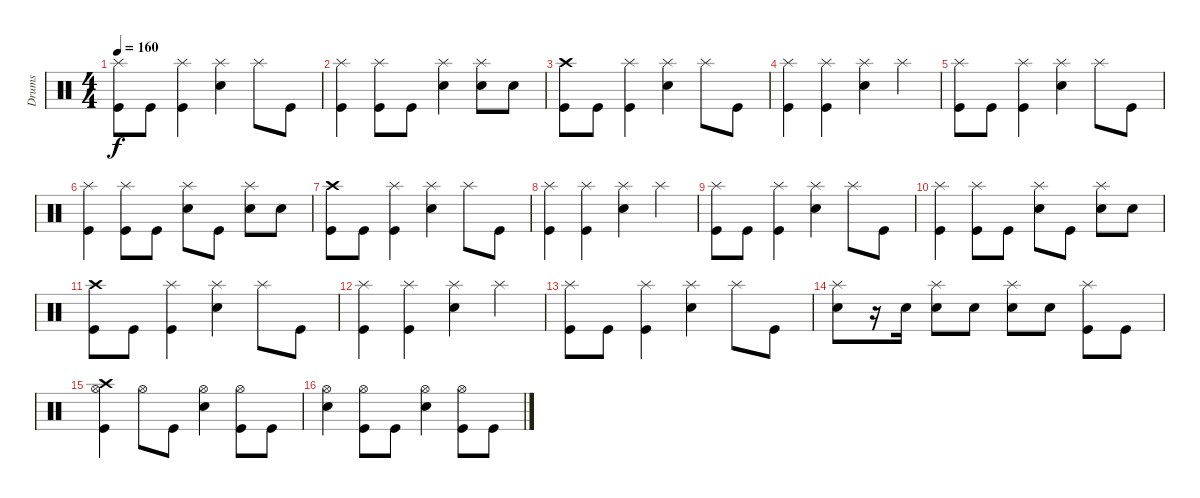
\track ("Drums" "Drums") {instrument percussion}
\staff {score}
\articulation defaults
\ts (4 4)
\tempo 160
\clef neutral
\ks c
("Splash (hit)" "Kick (hit)").8{dy f} "Kick (hit)".8 ("Splash (hit)" "Kick (hit)").4 ("Splash (hit)" "Snare (hit) 2").4 "Splash (hit)".8 "Kick (hit)".8 |
("Splash (hit)" "Kick (hit)").4 ("Splash (hit)" "Kick (hit)").8 "Kick (hit)".8 ("Splash (hit)" "Snare (hit) 2").4 ("Splash (hit)" "Snare (hit) 2").8 "Snare (hit) 2".8 |
("Crash high (hit)" "Kick (hit)").8 "Kick (hit)".8 ("Splash (hit)" "Kick (hit)").4 ("Splash (hit)" "Snare (hit) 2").4 "Splash (hit)".8 "Kick (hit)".8 |
("Splash (hit)" "Kick (hit)").4 ("Splash (hit)" "Kick (hit)").4 ("Splash (hit)" "Snare (hit) 2").4 "Splash (hit)".4 |
("Splash (hit)" "Kick (hit)").8 "Kick (hit)".8 ("Splash (hit)" "Kick (hit)").4 ("Splash (hit)" "Snare (hit) 2").4 "Splash (hit)".8 "Kick (hit)".8 |
("Splash (hit)" "Kick (hit)").4 ("Splash (hit)" "Kick (hit)").8 "Kick (hit)".8 ("Splash (hit)" "Snare (hit) 2").8 "Kick (hit)".8 ("Splash (hit)" "Snare (hit) 2").8 "Snare (hit) 2".8 |
("Crash high (hit)" "Kick (hit)").8 "Kick (hit)".8 ("Splash (hit)" "Kick (hit)").4 ("Splash (hit)" "Snare (hit) 2").4 "Splash (hit)".8 "Kick (hit)".8 |
("Splash (hit)" "Kick (hit)").4 ("Splash (hit)" "Kick (hit)").4 ("Splash (hit)" "Snare (hit) 2").4 "Splash (hit)".4 |
("Splash (hit)" "Kick (hit)").8 "Kick (hit)".8 ("Splash (hit)" "Kick (hit)").4 ("Splash (hit)" "Snare (hit) 2").4 "Splash (hit)".8 "Kick (hit)".8 |
("Splash (hit)" "Kick (hit)").4 ("Splash (hit)" "Kick (hit)").8 "Kick (hit)".8 ("Splash (hit)" "Snare (hit) 2").8 "Kick (hit)".8 ("Splash (hit)" "Snare (hit) 2").8 "Snare (hit) 2".8 |
("Crash high (hit)" "Kick (hit)").8 "Kick (hit)".8 ("Splash (hit)" "Kick (hit)").4 ("Splash (hit)" "Snare (hit) 2").4 "Splash (hit)".8 "Kick (hit)".8 |
("Splash (hit)" "Kick (hit)").4 ("Splash (hit)" "Kick (hit)").4 ("Splash (hit)" "Snare (hit) 2").4 "Splash (hit)".4 |
("Splash (hit)" "Kick (hit)").8 "Kick (hit)".8 ("Splash (hit)" "Kick (hit)").4 ("Splash (hit)" "Snare (hit) 2").4 "Splash (hit)".8 "Kick (hit)".8 |
("Splash (hit)" "Snare (hit) 2").8 r.16 "Snare (hit) 2".16 ("Splash (hit)" "Snare (hit) 2").8 "Snare (hit) 2".8 ("Splash (hit)" "Snare (hit) 2").8 "Snare (hit) 2".8 ("Splash (hit)" "Kick (hit)").8 "Kick (hit)".8 |
("Hi-Hat (open)" "Crash high (hit)" "Kick (hit)").4 "Hi-Hat (open)".8 "Kick (hit)".8 ("Hi-Hat (open)" "Snare (hit) 2").4 ("Hi-Hat (open)" "Kick (hit)").8 "Kick (hit)".8 |
("Hi-Hat (open)" "Snare (hit) 2").4 ("Hi-Hat (open)" "Kick (hit)").8 "Kick (hit)".8 ("Hi-Hat (open)" "Snare (hit) 2").4 ("Hi-Hat (open)" "Kick (hit)").8 "Kick (hit)".8
